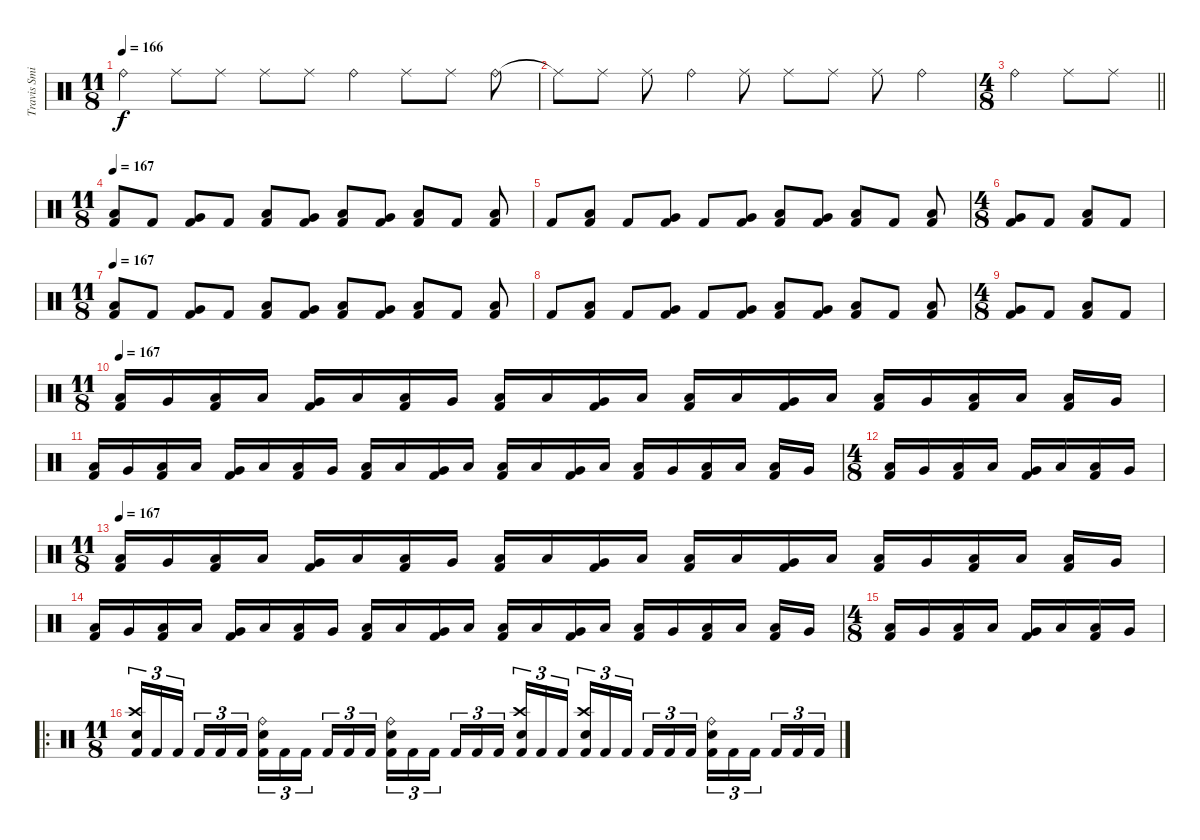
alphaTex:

\track ("Travis Smith" "Travis Smi") {instrument percussion}
\staff {score}
\articulation defaults
\ts (11 8)
\tempo 166
\clef neutral
\ks c "Ride (bell)".4{dy f} "Ride (middle)".8 "Ride (middle)".8 "Ride (middle)".8 "Ride (middle)".8 "Ride (bell)".4 "Ride (middle)".8 "Ride (middle)".8 "Ride (bell)".8
|
"Ride (middle)"{t}.8 "Ride (middle)".8 "Ride (middle)".8 "Ride (bell)".4 "Ride (middle)".8 "Ride (middle)".8 "Ride (middle)".8 "Ride (middle)".8 "Ride (bell)".4 |
\ts (4 8)
\barLineRight lightlight "Ride (bell)".4 "Ride (middle)".8 "Ride (middle)".8
|
\ts (11 8)
\section ("" "")
\tempo 167
("Kick (hit) 2" "Low Tom (hit)").8 "Kick (hit) 2".8 ("Kick (hit) 2" "Very Low Tom (hit)").8 "Kick (hit) 2".8 ("Kick (hit) 2" "Low Tom (hit)").8 ("Kick (hit) 2" "Very Low Tom (hit)").8 ("Kick (hit) 2" "Low Floor Tom (hit)").8 ("Kick (hit) 2" "Very Low Tom (hit)").8 ("Kick (hit) 2" "Low Floor Tom (hit)").8 "Kick (hit) 2".8 ("Kick (hit) 2" "Low Tom (hit)").8 |
"Kick (hit) 2".8 ("Kick (hit) 2" "Low Floor Tom (hit)").8 "Kick (hit) 2".8 ("Kick (hit) 2" "Very Low Tom (hit)").8 "Kick (hit) 2".8 ("Kick (hit) 2" "Very Low Tom (hit)").8 ("Kick (hit) 2" "Low Floor Tom (hit)").8 ("Kick (hit) 2" "Very Low Tom (hit)").8 ("Kick (hit) 2" "Low Floor Tom (hit)").8 "Kick (hit) 2".8 ("Kick (hit) 2" "Low Tom (hit)").8 |
\ts (4 8)
("Kick (hit) 2" "Very Low Tom (hit)").8 "Kick (hit) 2".8 ("Kick (hit) 2" "Low Floor Tom (hit)").8 "Kick (hit) 2".8 |
\ts (11 8)
\tempo 167
("Kick (hit) 2" "Low Tom (hit)").8 "Kick (hit) 2".8 ("Kick (hit) 2" "Very Low Tom (hit)").8 "Kick (hit) 2".8 ("Kick (hit) 2" "Low Tom (hit)").8 ("Kick (hit) 2" "Very Low Tom (hit)").8 ("Kick (hit) 2" "Low Floor Tom (hit)").8 ("Kick (hit) 2" "Very Low Tom (hit)").8 ("Kick (hit) 2" "Low Floor Tom (hit)").8 "Kick (hit) 2".8 ("Kick (hit) 2" "Low Tom (hit)").8 |
"Kick (hit) 2".8 ("Kick (hit) 2" "Low Floor Tom (hit)").8 "Kick (hit) 2".8 ("Kick (hit) 2" "Very Low Tom (hit)").8 "Kick (hit) 2".8 ("Kick (hit) 2" "Very Low Tom (hit)").8 ("Kick (hit) 2" "Low Floor Tom (hit)").8 ("Kick (hit) 2" "Very Low Tom (hit)").8 ("Kick (hit) 2" "Low Floor Tom (hit)").8 "Kick (hit) 2".8 ("Kick (hit) 2" "Low Tom (hit)").8 |
\ts (4 8)
("Kick (hit) 2" "Very Low Tom (hit)").8 "Kick (hit) 2".8 ("Kick (hit) 2" "Low Floor Tom (hit)").8 "Kick (hit) 2".8 |
\ts (11 8)
\tempo 167
("Kick (hit) 2" "Low Tom (hit)").16 "Very Low Tom (hit)".16 ("Kick (hit) 2" "Low Floor Tom (hit)").16 "Low Tom (hit)".16 ("Kick (hit) 2" "Very Low Tom (hit)").16 "Low Floor Tom (hit)".16 ("Kick (hit) 2" "Low Tom (hit)").16 "Very Low Tom (hit)".16 ("Kick (hit) 2" "Low Tom (hit)").16 "Low Floor Tom (hit)".16 ("Kick (hit) 2" "Very Low Tom (hit)").16 "Low Tom (hit)".16 ("Kick (hit) 2" "Low Floor Tom (hit)").16 "Low Tom (hit)".16 ("Kick (hit) 2" "Very Low Tom (hit)").16 "Low Tom (hit)".16 ("Kick (hit) 2" "Low Floor Tom (hit)").16 "Very Low Tom (hit)".16 ("Kick (hit) 2" "Low Tom (hit)").16 "Low Floor Tom (hit)".16 ("Kick (hit) 2" "Low Tom (hit)").16 "Very Low Tom (hit)".16 |
("Kick (hit) 2" "Low Tom (hit)").16 "Very Low Tom (hit)".16 ("Kick (hit) 2" "Low Floor Tom (hit)").16 "Low Tom (hit)".16 ("Kick (hit) 2" "Very Low Tom (hit)").16 "Low Floor Tom (hit)".16 ("Kick (hit) 2" "Low Tom (hit)").16 "Very Low Tom (hit)".16 ("Kick (hit) 2" "Low Tom (hit)").16 "Low Floor Tom (hit)".16 ("Kick (hit) 2" "Very Low Tom (hit)").16 "Low Tom (hit)".16 ("Kick (hit) 2" "Low Floor Tom (hit)").16 "Low Tom (hit)".16 ("Kick (hit) 2" "Very Low Tom (hit)").16 "Low Tom (hit)".16 ("Kick (hit) 2" "Low Floor Tom (hit)").16 "Very Low Tom (hit)".16 ("Kick (hit) 2" "Low Tom (hit)").16 "Low Floor Tom (hit)".16 ("Kick (hit) 2" "Low Tom (hit)").16 "Very Low Tom (hit)".16 |
\ts (4 8)
("Kick (hit) 2" "Low Tom (hit)").16 "Very Low Tom (hit)".16 ("Kick (hit) 2" "Low Floor Tom (hit)").16 "Low Tom (hit)".16 ("Kick (hit) 2" "Very Low Tom (hit)").16 "Low Floor Tom (hit)".16 ("Kick (hit) 2" "Low Tom (hit)").16 "Very Low Tom (hit)".16 |
\ts (11 8)
\tempo 167
("Kick (hit) 2" "Low Tom (hit)").16 "Very Low Tom (hit)".16 ("Kick (hit) 2" "Low Floor Tom (hit)").16 "Low Tom (hit)".16 ("Kick (hit) 2" "Very Low Tom (hit)").16 "Low Floor Tom (hit)".16 ("Kick (hit) 2" "Low Tom (hit)").16 "Very Low Tom (hit)".16 ("Kick (hit) 2" "Low Tom (hit)").16 "Low Floor Tom (hit)".16 ("Kick (hit) 2" "Very Low Tom (hit)").16 "Low Tom (hit)".16 ("Kick (hit) 2" "Low Floor Tom (hit)").16 "Low Tom (hit)".16 ("Kick (hit) 2" "Very Low Tom (hit)").16 "Low Tom (hit)".16 ("Kick (hit) 2" "Low Floor Tom (hit)").16 "Very Low Tom (hit)".16 ("Kick (hit) 2" "Low Tom (hit)").16 "Low Floor Tom (hit)".16 ("Kick (hit) 2" "Low Tom (hit)").16 "Very Low Tom (hit)".16 |
("Kick (hit) 2" "Low Tom (hit)").16 "Very Low Tom (hit)".16 ("Kick (hit) 2" "Low Floor Tom (hit)").16 "Low Tom (hit)".16 ("Kick (hit) 2" "Very Low Tom (hit)").16 "Low Floor Tom (hit)".16 ("Kick (hit) 2" "Low Tom (hit)").16 "Very Low Tom (hit)".16 ("Kick (hit) 2" "Low Tom (hit)").16 "Low Floor Tom (hit)".16 ("Kick (hit) 2" "Very Low Tom (hit)").16 "Low Tom (hit)".16 ("Kick (hit) 2" "Low Floor Tom (hit)").16 "Low Tom (hit)".16 ("Kick (hit) 2" "Very Low Tom (hit)").16 "Low Tom (hit)".16 ("Kick (hit) 2" "Low Floor Tom (hit)").16 "Very Low Tom (hit)".16 ("Kick (hit) 2" "Low Tom (hit)").16 "Low Floor Tom (hit)".16 ("Kick (hit) 2" "Low Tom (hit)").16 "Very Low Tom (hit)".16 |
\ts (4 8)
("Kick (hit) 2" "Low Tom (hit)").16 "Very Low Tom (hit)".16 ("Kick (hit) 2" "Low Floor Tom (hit)").16 "Low Tom (hit)".16 ("Kick (hit) 2" "Very Low Tom (hit)").16 "Low Floor Tom (hit)".16 ("Kick (hit) 2" "Low Tom (hit)").16 "Very Low Tom (hit)".16 |
\ro
\ts (11 8)
("Crash high (hit)" "Snare (hit) 2" "Kick (hit) 2").16{tu (3 2)} "Kick (hit) 2".16{tu (3 2)} "Kick (hit) 2".16{tu (3 2)} "Kick (hit) 2".16{tu (3 2)} "Kick (hit) 2".16{tu (3 2)} "Kick (hit) 2".16{tu (3 2)} ("Ride (bell)" "Snare (hit) 2" "Kick (hit) 2").16{tu (3 2)} "Kick (hit) 2".16{tu (3 2)} "Kick (hit) 2".16{tu (3 2)} "Kick (hit) 2".16{tu (3 2)} "Kick (hit) 2".16{tu (3 2)} "Kick (hit) 2".16{tu (3 2)} ("Ride (bell)" "Snare (hit) 2" "Kick (hit) 2").16{tu (3 2)} "Kick (hit) 2".16{tu (3 2)} "Kick (hit) 2".16{tu (3 2)} "Kick (hit) 2".16{tu (3 2)} "Kick (hit) 2".16{tu (3 2)} "Kick (hit) 2".16{tu (3 2)} ("Crash high (hit)" "Snare (hit) 2" "Kick (hit) 2").16{tu (3 2)} "Kick (hit) 2".16{tu (3 2)} "Kick (hit) 2".16{tu (3 2)} ("Crash high (hit)" "Snare (hit) 2" "Kick (hit) 2").16{tu (3 2)} "Kick (hit) 2".16{tu (3 2)} "Kick (hit) 2".16{tu (3 2)} "Kick (hit) 2".16{tu (3 2)} "Kick (hit) 2".16{tu (3 2)} "Kick (hit) 2".16{tu (3 2)} ("Ride (bell)" "Snare (hit) 2" "Kick (hit) 2").16{tu (3 2)} "Kick (hit) 2".16{tu (3 2)} "Kick (hit) 2".16{tu (3 2)} "Kick (hit) 2".16{tu (3 2)} "Kick (hit) 2".16{tu (3 2)} "Kick (hit) 2".16{tu (3 2)}
